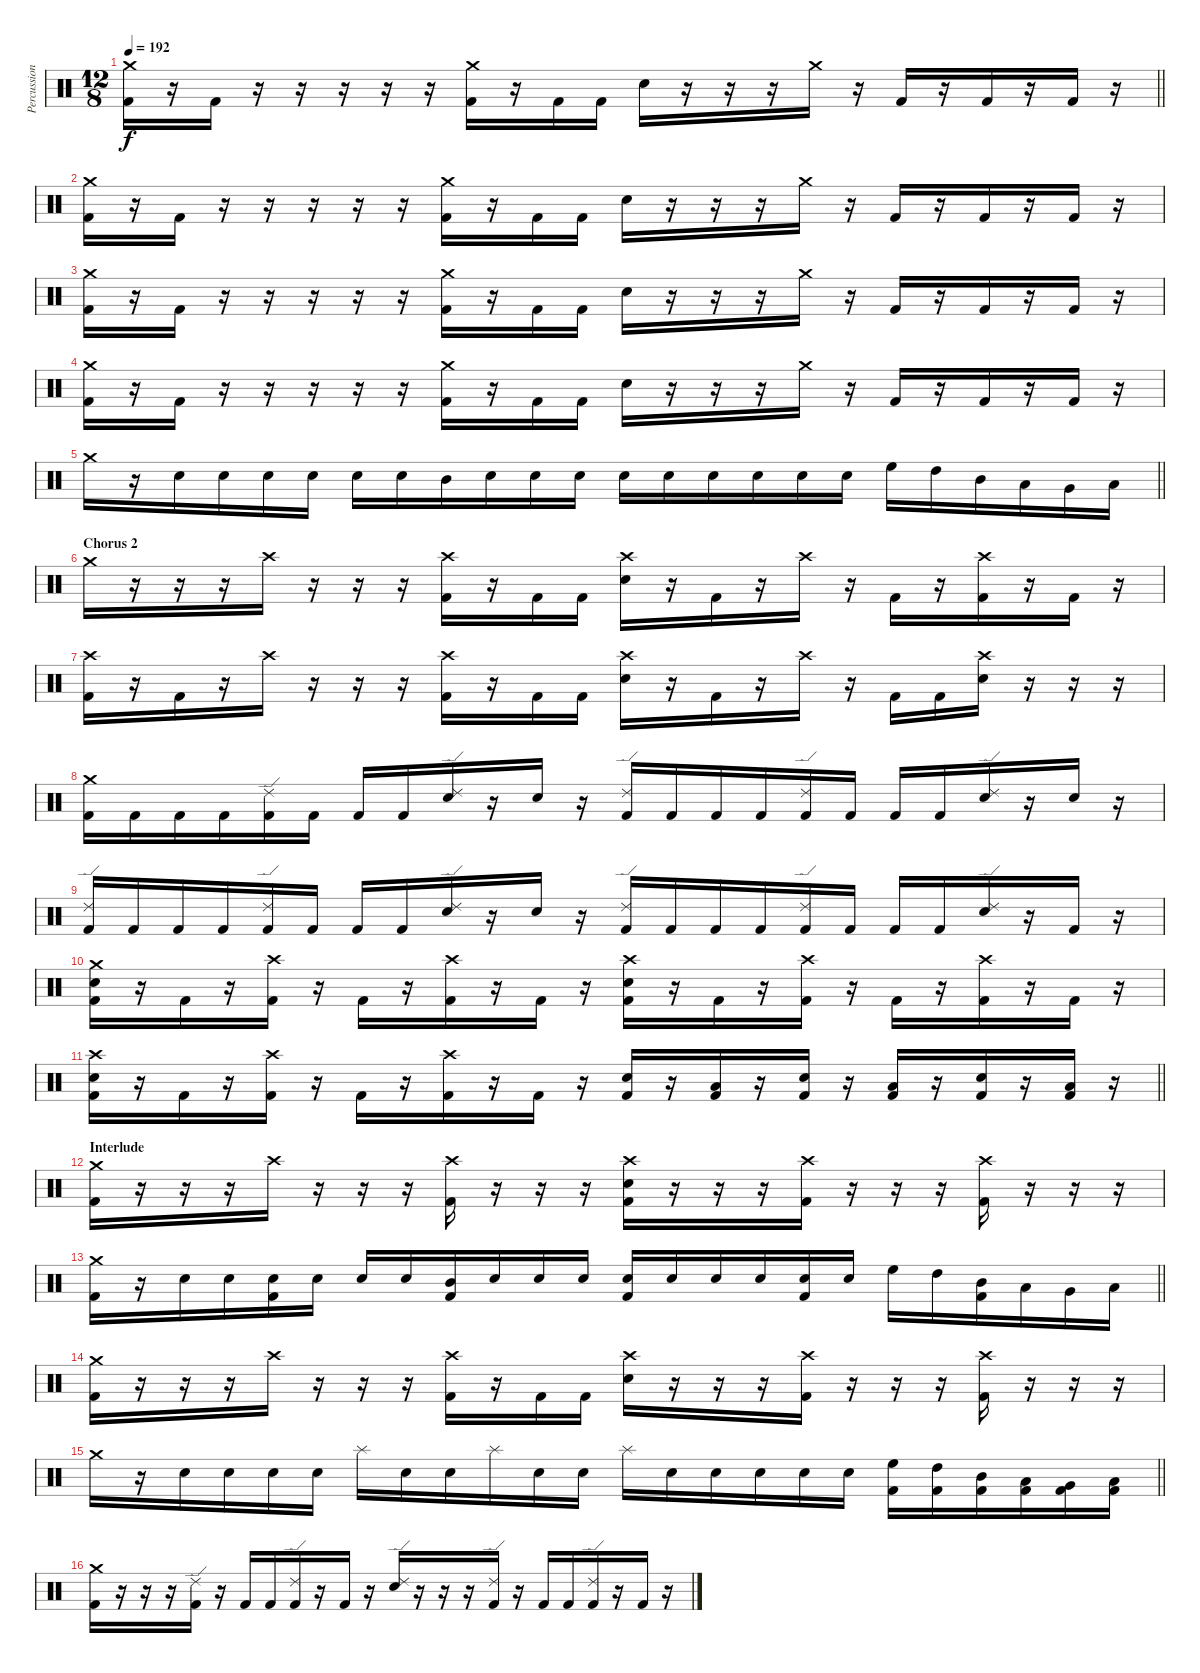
\track ("Percussion" "Percussion") {instrument percussion}
\staff {score}
\articulation defaults
\ts (12 8)
\tempo 192
\clef neutral
\barLineRight lightlight
\ks c
("Crash medium (hit)" "Kick (hit) 2").16{dy f} r.16 "Kick (hit) 2".16 r.16 r.16 r.16 r.16 r.16 ("Crash medium (hit)" "Kick (hit) 2").16 r.16 "Kick (hit) 2".16 "Kick (hit) 2".16 "Electric Snare (hit)".16 r.16 r.16 r.16 "Crash medium (hit)".16 r.16 "Kick (hit) 2".16 r.16 "Kick (hit) 2".16 r.16 "Kick (hit) 2".16 r.16 |
("Crash medium (hit)" "Kick (hit) 2").16 r.16 "Kick (hit) 2".16 r.16 r.16 r.16 r.16 r.16 ("Crash medium (hit)" "Kick (hit) 2").16 r.16 "Kick (hit) 2".16 "Kick (hit) 2".16 "Electric Snare (hit)".16 r.16 r.16 r.16 "Crash medium (hit)".16 r.16 "Kick (hit) 2".16 r.16 "Kick (hit) 2".16 r.16 "Kick (hit) 2".16 r.16 |
("Crash medium (hit)" "Kick (hit) 2").16 r.16 "Kick (hit) 2".16 r.16 r.16 r.16 r.16 r.16 ("Crash medium (hit)" "Kick (hit) 2").16 r.16 "Kick (hit) 2".16 "Kick (hit) 2".16 "Electric Snare (hit)".16 r.16 r.16 r.16 "Crash medium (hit)".16 r.16 "Kick (hit) 2".16 r.16 "Kick (hit) 2".16 r.16 "Kick (hit) 2".16 r.16 |
("Crash medium (hit)" "Kick (hit) 2").16 r.16 "Kick (hit) 2".16 r.16 r.16 r.16 r.16 r.16 ("Crash medium (hit)" "Kick (hit) 2").16 r.16 "Kick (hit) 2".16 "Kick (hit) 2".16 "Electric Snare (hit)".16 r.16 r.16 r.16 "Crash medium (hit)".16 r.16 "Kick (hit) 2".16 r.16 "Kick (hit) 2".16 r.16 "Kick (hit) 2".16 r.16 |
\barLineRight lightlight "Crash medium (hit)".16
r.16 "Electric Snare (hit)".16 "Electric Snare (hit)".16 "Electric Snare (hit)".16 "Electric Snare (hit)".16 "Electric Snare (hit)".16 "Electric Snare (hit)".16 "Mid Tom (hit)".16 "Electric Snare (hit)".16 "Electric Snare (hit)".16 "Electric Snare (hit)".16 "Electric Snare (hit)".16 "Electric Snare (hit)".16 "Electric Snare (hit)".16 "Electric Snare (hit)".16 "Electric Snare (hit)".16 "Electric Snare (hit)".16 "High Floor Tom (hit)".16 "High Tom (hit)".16 "Mid Tom (hit)".16 "Low Tom (hit)".16 "Very Low Tom (hit)".16 "Low Floor Tom (hit)".16 |
\section ("" "Chorus 2")
"Crash medium (hit)".16 r.16 r.16 r.16 "Crash high (hit)".16 r.16 r.16 r.16 ("Crash high (hit)" "Kick (hit) 2").16 r.16 "Kick (hit) 2".16 "Kick (hit) 2".16 ("Crash high (hit)" "Electric Snare (hit)").16 r.16 "Kick (hit) 2".16 r.16 "Crash high (hit)".16 r.16 "Kick (hit) 2".16 r.16 ("Crash high (hit)" "Kick (hit) 2").16 r.16 "Kick (hit) 2".16 r.16 |
("Crash high (hit)" "Kick (hit) 2").16 r.16 "Kick (hit) 2".16 r.16 "Crash high (hit)".16 r.16 r.16 r.16 ("Crash high (hit)" "Kick (hit) 2").16 r.16 "Kick (hit) 2".16 "Kick (hit) 2".16 ("Crash high (hit)" "Electric Snare (hit)").16 r.16 "Kick (hit) 2".16 r.16 "Crash high (hit)".16 r.16 "Kick (hit) 2".16 "Kick (hit) 2".16 ("Crash high (hit)" "Electric Snare (hit)").16 r.16 r.16 r.16 |
("Crash medium (hit)" "Kick (hit) 2").16 "Kick (hit) 2".16 "Kick (hit) 2".16 "Kick (hit) 2".16 ("Ride (edge) 2" "Kick (hit) 2").16 "Kick (hit) 2".16 "Kick (hit) 2".16 "Kick (hit) 2".16 ("Ride (edge) 2" "Electric Snare (hit)").16 r.16 "Electric Snare (hit)".16 r.16 ("Ride (edge) 2" "Kick (hit) 2").16 "Kick (hit) 2".16 "Kick (hit) 2".16 "Kick (hit) 2".16 ("Ride (edge) 2" "Kick (hit) 2").16 "Kick (hit) 2".16 "Kick (hit) 2".16 "Kick (hit) 2".16 ("Ride (edge) 2" "Electric Snare (hit)").16 r.16 "Electric Snare (hit)".16 r.16 |
("Ride (edge) 2" "Kick (hit) 2").16 "Kick (hit) 2".16 "Kick (hit) 2".16 "Kick (hit) 2".16 ("Ride (edge) 2" "Kick (hit) 2").16 "Kick (hit) 2".16 "Kick (hit) 2".16 "Kick (hit) 2".16 ("Ride (edge) 2" "Electric Snare (hit)").16 r.16 "Electric Snare (hit)".16 r.16 ("Ride (edge) 2" "Kick (hit) 2").16 "Kick (hit) 2".16 "Kick (hit) 2".16 "Kick (hit) 2".16 ("Ride (edge) 2" "Kick (hit) 2").16 "Kick (hit) 2".16 "Kick (hit) 2".16 "Kick (hit) 2".16 ("Ride (edge) 2" "Electric Snare (hit)").16 r.16 "Kick (hit) 2".16 r.16 |
("Crash medium (hit)" "Electric Snare (hit)" "Kick (hit) 2").16 r.16 "Kick (hit) 2".16 r.16 ("Crash high (hit)" "Kick (hit) 2").16 r.16 "Kick (hit) 2".16 r.16 ("Crash high (hit)" "Kick (hit) 2").16 r.16 "Kick (hit) 2".16 r.16 ("Crash high (hit)" "Electric Snare (hit)" "Kick (hit) 2").16 r.16 "Kick (hit) 2".16 r.16 ("Crash high (hit)" "Kick (hit) 2").16 r.16 "Kick (hit) 2".16 r.16 ("Crash high (hit)" "Kick (hit) 2").16 r.16 "Kick (hit) 2".16 r.16 |
\barLineRight lightlight
("Crash high (hit)" "Electric Snare (hit)" "Kick (hit) 2").16 r.16 "Kick (hit) 2".16 r.16 ("Crash high (hit)" "Kick (hit) 2").16 r.16 "Kick (hit) 2".16 r.16 ("Crash high (hit)" "Kick (hit) 2").16 r.16 "Kick (hit) 2".16 r.16 ("Electric Snare (hit)" "Kick (hit) 2").16 r.16 ("Low Floor Tom (hit)" "Kick (hit) 2").16 r.16 ("Electric Snare (hit)" "Kick (hit) 2").16 r.16 ("Low Floor Tom (hit)" "Kick (hit) 2").16 r.16 ("Electric Snare (hit)" "Kick (hit) 2").16 r.16 ("Low Floor Tom (hit)" "Kick (hit) 2").16 r.16 |
\section ("" "Interlude")
("Crash medium (hit)" "Kick (hit) 2").16 r.16 r.16 r.16 "Crash high (hit)".16 r.16 r.16 r.16 ("Crash high (hit)" "Kick (hit) 2").16 r.16 r.16 r.16 ("Crash high (hit)" "Electric Snare (hit)" "Kick (hit) 2").16 r.16 r.16 r.16 ("Crash high (hit)" "Kick (hit) 2").16 r.16 r.16 r.16 ("Crash high (hit)" "Kick (hit) 2").16 r.16 r.16 r.16 |
\barLineRight lightlight
("Crash medium (hit)" "Kick (hit) 2").16 r.16 "Electric Snare (hit)".16 "Electric Snare (hit)".16 ("Electric Snare (hit)" "Kick (hit) 2").16 "Electric Snare (hit)".16 "Electric Snare (hit)".16 "Electric Snare (hit)".16 ("Mid Tom (hit)" "Kick (hit) 2").16 "Electric Snare (hit)".16 "Electric Snare (hit)".16 "Electric Snare (hit)".16 ("Electric Snare (hit)" "Kick (hit) 2").16 "Electric Snare (hit)".16 "Electric Snare (hit)".16 "Electric Snare (hit)".16 ("Electric Snare (hit)" "Kick (hit) 2").16 "Electric Snare (hit)".16 "High Floor Tom (hit)".16 "High Tom (hit)".16 ("Mid Tom (hit)" "Kick (hit) 2").16 "Low Tom (hit)".16 "Very Low Tom (hit)".16 "Low Floor Tom (hit)".16 |
("Crash medium (hit)" "Kick (hit) 2").16 r.16 r.16 r.16 "Crash high (hit)".16 r.16 r.16 r.16 ("Crash high (hit)" "Kick (hit) 2").16 r.16 "Kick (hit) 2".16 "Kick (hit) 2".16 ("Crash high (hit)" "Electric Snare (hit)").16 r.16 r.16 r.16 ("Crash high (hit)" "Kick (hit) 2").16 r.16 r.16 r.16 ("Crash high (hit)" "Kick (hit) 2").16 r.16 r.16 r.16 |
\barLineRight lightlight "Crash medium (hit)".16
r.16 "Electric Snare (hit)".16 "Electric Snare (hit)".16 "Electric Snare (hit)".16 "Electric Snare (hit)".16 "Splash (hit)".16 "Electric Snare (hit)".16 "Electric Snare (hit)".16 "Splash (hit)".16 "Electric Snare (hit)".16 "Electric Snare (hit)".16 "Splash (hit)".16 "Electric Snare (hit)".16 "Electric Snare (hit)".16 "Electric Snare (hit)".16 "Electric Snare (hit)".16 "Electric Snare (hit)".16 ("High Floor Tom (hit)" "Kick (hit) 2").16 ("High Tom (hit)" "Kick (hit) 2").16 ("Mid Tom (hit)" "Kick (hit) 2").16 ("Low Tom (hit)" "Kick (hit) 2").16 ("Very Low Tom (hit)" "Kick (hit) 2").16 ("Low Floor Tom (hit)" "Kick (hit) 2").16 |
("Crash medium (hit)" "Kick (hit) 2").16 r.16 r.16 r.16 ("Ride (edge) 2" "Kick (hit) 2").16 r.16 "Kick (hit) 2".16 "Kick (hit) 2".16 ("Ride (edge) 2" "Kick (hit) 2").16 r.16 "Kick (hit) 2".16 r.16 ("Ride (edge) 2" "Electric Snare (hit)").16 r.16 r.16 r.16 ("Ride (edge) 2" "Kick (hit) 2").16 r.16 "Kick (hit) 2".16 "Kick (hit) 2".16 ("Ride (edge) 2" "Kick (hit) 2").16 r.16 "Kick (hit) 2".16 r.16
